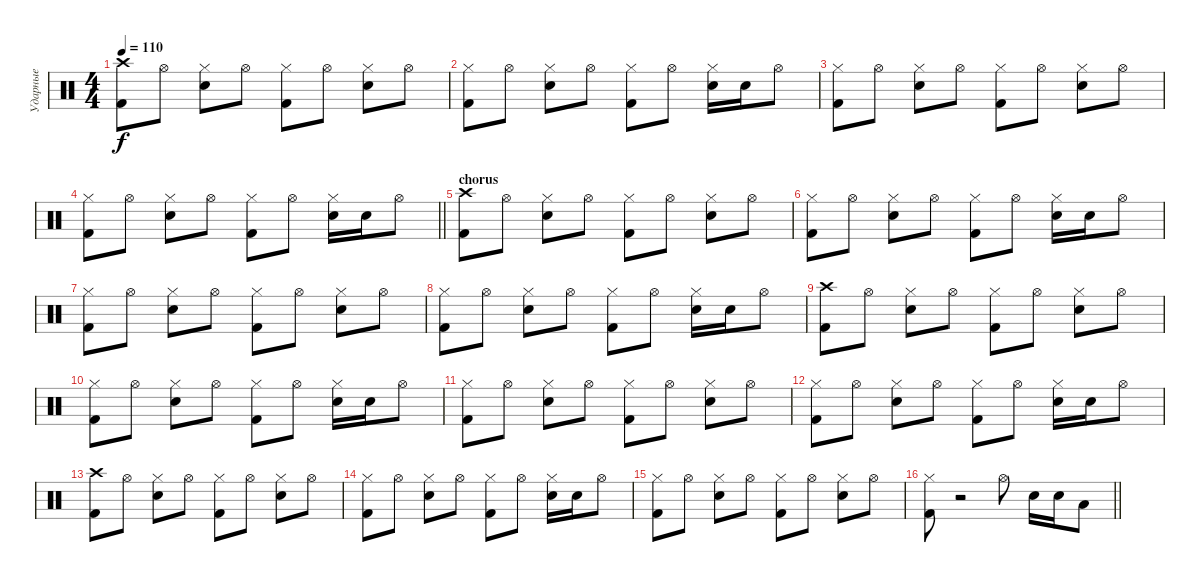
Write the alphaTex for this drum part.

\track ("Ударные" "Ударные") {instrument percussion}
\staff {score}
\articulation defaults
\ts (4 4)
\tempo 110
\clef neutral
\ks c
("Crash high (hit)" "Kick (hit) 2").8{dy f} "Hi-Hat (open)".8 ("Hi-Hat (closed)" "Snare (hit) 2").8 "Hi-Hat (open)".8 ("Hi-Hat (closed)" "Kick (hit) 2").8 "Hi-Hat (open)".8 ("Hi-Hat (closed)" "Snare (hit) 2").8 "Hi-Hat (open)".8 |
("Hi-Hat (closed)" "Kick (hit) 2").8 "Hi-Hat (open)".8 ("Hi-Hat (closed)" "Snare (hit) 2").8 "Hi-Hat (open)".8 ("Hi-Hat (closed)" "Kick (hit) 2").8 "Hi-Hat (open)".8 ("Hi-Hat (closed)" "Snare (hit) 2").16 "Snare (hit) 2".16 "Hi-Hat (open)".8 |
("Hi-Hat (closed)" "Kick (hit) 2").8 "Hi-Hat (open)".8 ("Hi-Hat (closed)" "Snare (hit) 2").8 "Hi-Hat (open)".8 ("Hi-Hat (closed)" "Kick (hit) 2").8 "Hi-Hat (open)".8 ("Hi-Hat (closed)" "Snare (hit) 2").8 "Hi-Hat (open)".8 |
\barLineRight lightlight
("Hi-Hat (closed)" "Kick (hit) 2").8 "Hi-Hat (open)".8 ("Hi-Hat (closed)" "Snare (hit) 2").8 "Hi-Hat (open)".8 ("Hi-Hat (closed)" "Kick (hit) 2").8 "Hi-Hat (open)".8 ("Hi-Hat (closed)" "Snare (hit) 2").16 "Snare (hit) 2".16 "Hi-Hat (open)".8 |
\section ("" "chorus")
("Crash high (hit)" "Kick (hit) 2").8 "Hi-Hat (open)".8 ("Hi-Hat (closed)" "Snare (hit) 2").8 "Hi-Hat (open)".8 ("Hi-Hat (closed)" "Kick (hit) 2").8 "Hi-Hat (open)".8 ("Hi-Hat (closed)" "Snare (hit) 2").8 "Hi-Hat (open)".8 |
("Hi-Hat (closed)" "Kick (hit) 2").8 "Hi-Hat (open)".8 ("Hi-Hat (closed)" "Snare (hit) 2").8 "Hi-Hat (open)".8 ("Hi-Hat (closed)" "Kick (hit) 2").8 "Hi-Hat (open)".8 ("Hi-Hat (closed)" "Snare (hit) 2").16 "Snare (hit) 2".16 "Hi-Hat (open)".8 |
("Hi-Hat (closed)" "Kick (hit) 2").8 "Hi-Hat (open)".8 ("Hi-Hat (closed)" "Snare (hit) 2").8 "Hi-Hat (open)".8 ("Hi-Hat (closed)" "Kick (hit) 2").8 "Hi-Hat (open)".8 ("Hi-Hat (closed)" "Snare (hit) 2").8 "Hi-Hat (open)".8 |
("Hi-Hat (closed)" "Kick (hit) 2").8 "Hi-Hat (open)".8 ("Hi-Hat (closed)" "Snare (hit) 2").8 "Hi-Hat (open)".8 ("Hi-Hat (closed)" "Kick (hit) 2").8 "Hi-Hat (open)".8 ("Hi-Hat (closed)" "Snare (hit) 2").16 "Snare (hit) 2".16 "Hi-Hat (open)".8 |
("Crash high (hit)" "Kick (hit) 2").8 "Hi-Hat (open)".8 ("Hi-Hat (closed)" "Snare (hit) 2").8 "Hi-Hat (open)".8 ("Hi-Hat (closed)" "Kick (hit) 2").8 "Hi-Hat (open)".8 ("Hi-Hat (closed)" "Snare (hit) 2").8 "Hi-Hat (open)".8 |
("Hi-Hat (closed)" "Kick (hit) 2").8 "Hi-Hat (open)".8 ("Hi-Hat (closed)" "Snare (hit) 2").8 "Hi-Hat (open)".8 ("Hi-Hat (closed)" "Kick (hit) 2").8 "Hi-Hat (open)".8 ("Hi-Hat (closed)" "Snare (hit) 2").16 "Snare (hit) 2".16 "Hi-Hat (open)".8 |
("Hi-Hat (closed)" "Kick (hit) 2").8 "Hi-Hat (open)".8 ("Hi-Hat (closed)" "Snare (hit) 2").8 "Hi-Hat (open)".8 ("Hi-Hat (closed)" "Kick (hit) 2").8 "Hi-Hat (open)".8 ("Hi-Hat (closed)" "Snare (hit) 2").8 "Hi-Hat (open)".8 |
("Hi-Hat (closed)" "Kick (hit) 2").8 "Hi-Hat (open)".8 ("Hi-Hat (closed)" "Snare (hit) 2").8 "Hi-Hat (open)".8 ("Hi-Hat (closed)" "Kick (hit) 2").8 "Hi-Hat (open)".8 ("Hi-Hat (closed)" "Snare (hit) 2").16 "Snare (hit) 2".16 "Hi-Hat (open)".8 |
("Crash high (hit)" "Kick (hit) 2").8 "Hi-Hat (open)".8 ("Hi-Hat (closed)" "Snare (hit) 2").8 "Hi-Hat (open)".8 ("Hi-Hat (closed)" "Kick (hit) 2").8 "Hi-Hat (open)".8 ("Hi-Hat (closed)" "Snare (hit) 2").8 "Hi-Hat (open)".8 |
("Hi-Hat (closed)" "Kick (hit) 2").8 "Hi-Hat (open)".8 ("Hi-Hat (closed)" "Snare (hit) 2").8 "Hi-Hat (open)".8 ("Hi-Hat (closed)" "Kick (hit) 2").8 "Hi-Hat (open)".8 ("Hi-Hat (closed)" "Snare (hit) 2").16 "Snare (hit) 2".16 "Hi-Hat (open)".8 |
("Hi-Hat (closed)" "Kick (hit) 2").8 "Hi-Hat (open)".8 ("Hi-Hat (closed)" "Snare (hit) 2").8 "Hi-Hat (open)".8 ("Hi-Hat (closed)" "Kick (hit) 2").8 "Hi-Hat (open)".8 ("Hi-Hat (closed)" "Snare (hit) 2").8 "Hi-Hat (open)".8 |
\barLineRight lightlight
("Hi-Hat (closed)" "Kick (hit) 2").8 r.2 "Hi-Hat (open)".8 "Snare (hit) 2".16 "Snare (hit) 2".16 "Low Tom (hit)".8
